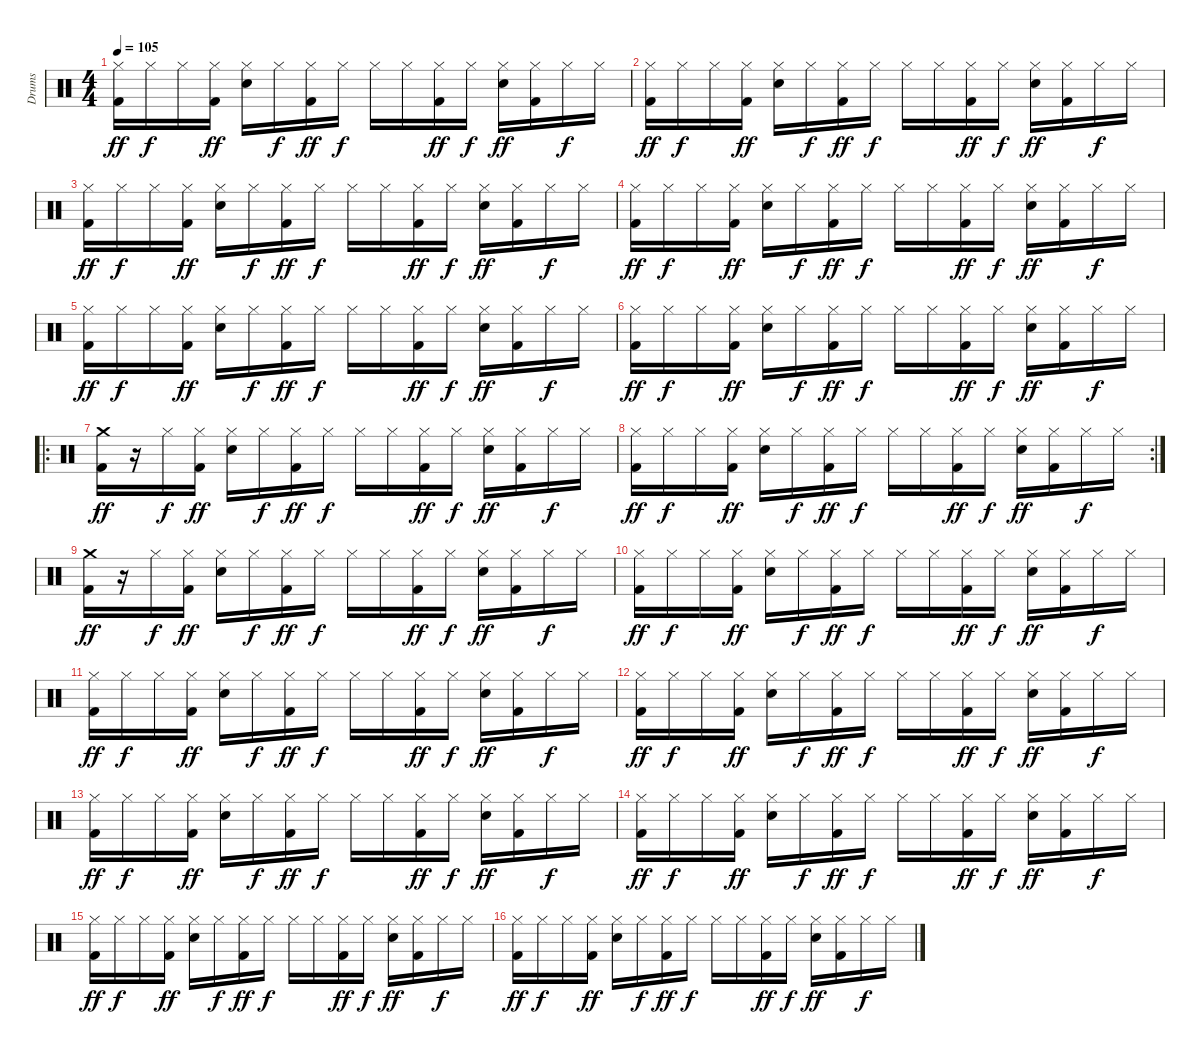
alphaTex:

\track ("Drums" "Drums") {instrument percussion}
\staff {score}
\articulation defaults
\ts (4 4)
\tempo 105
\clef neutral
\ks c
("Hi-Hat (closed)" "Kick (hit) 2").16{dy ff} "Hi-Hat (closed)".16{dy f} "Hi-Hat (closed)".16 ("Hi-Hat (closed)" "Kick (hit) 2").16{dy ff} ("Hi-Hat (closed)" "Electric Snare (hit)").16 "Hi-Hat (closed)".16{dy f} ("Hi-Hat (closed)" "Kick (hit) 2").16{dy ff} "Hi-Hat (closed)".16{dy f} "Hi-Hat (closed)".16 "Hi-Hat (closed)".16 ("Hi-Hat (closed)" "Kick (hit) 2").16{dy ff} "Hi-Hat (closed)".16{dy f} ("Hi-Hat (closed)" "Electric Snare (hit)").16{dy ff} ("Hi-Hat (closed)" "Kick (hit) 2").16 "Hi-Hat (closed)".16{dy f} "Hi-Hat (closed)".16 |
("Hi-Hat (closed)" "Kick (hit) 2").16{dy ff} "Hi-Hat (closed)".16{dy f} "Hi-Hat (closed)".16 ("Hi-Hat (closed)" "Kick (hit) 2").16{dy ff} ("Hi-Hat (closed)" "Electric Snare (hit)").16 "Hi-Hat (closed)".16{dy f} ("Hi-Hat (closed)" "Kick (hit) 2").16{dy ff} "Hi-Hat (closed)".16{dy f} "Hi-Hat (closed)".16 "Hi-Hat (closed)".16 ("Hi-Hat (closed)" "Kick (hit) 2").16{dy ff} "Hi-Hat (closed)".16{dy f} ("Hi-Hat (closed)" "Electric Snare (hit)").16{dy ff} ("Hi-Hat (closed)" "Kick (hit) 2").16 "Hi-Hat (closed)".16{dy f} "Hi-Hat (closed)".16 |
("Hi-Hat (closed)" "Kick (hit) 2").16{dy ff} "Hi-Hat (closed)".16{dy f} "Hi-Hat (closed)".16 ("Hi-Hat (closed)" "Kick (hit) 2").16{dy ff} ("Hi-Hat (closed)" "Electric Snare (hit)").16 "Hi-Hat (closed)".16{dy f} ("Hi-Hat (closed)" "Kick (hit) 2").16{dy ff} "Hi-Hat (closed)".16{dy f} "Hi-Hat (closed)".16 "Hi-Hat (closed)".16 ("Hi-Hat (closed)" "Kick (hit) 2").16{dy ff} "Hi-Hat (closed)".16{dy f} ("Hi-Hat (closed)" "Electric Snare (hit)").16{dy ff} ("Hi-Hat (closed)" "Kick (hit) 2").16 "Hi-Hat (closed)".16{dy f} "Hi-Hat (closed)".16 |
("Hi-Hat (closed)" "Kick (hit) 2").16{dy ff} "Hi-Hat (closed)".16{dy f} "Hi-Hat (closed)".16 ("Hi-Hat (closed)" "Kick (hit) 2").16{dy ff} ("Hi-Hat (closed)" "Electric Snare (hit)").16 "Hi-Hat (closed)".16{dy f} ("Hi-Hat (closed)" "Kick (hit) 2").16{dy ff} "Hi-Hat (closed)".16{dy f} "Hi-Hat (closed)".16 "Hi-Hat (closed)".16 ("Hi-Hat (closed)" "Kick (hit) 2").16{dy ff} "Hi-Hat (closed)".16{dy f} ("Hi-Hat (closed)" "Electric Snare (hit)").16{dy ff} ("Hi-Hat (closed)" "Kick (hit) 2").16 "Hi-Hat (closed)".16{dy f} "Hi-Hat (closed)".16 |
("Hi-Hat (closed)" "Kick (hit) 2").16{dy ff} "Hi-Hat (closed)".16{dy f} "Hi-Hat (closed)".16 ("Hi-Hat (closed)" "Kick (hit) 2").16{dy ff} ("Hi-Hat (closed)" "Electric Snare (hit)").16 "Hi-Hat (closed)".16{dy f} ("Hi-Hat (closed)" "Kick (hit) 2").16{dy ff} "Hi-Hat (closed)".16{dy f} "Hi-Hat (closed)".16 "Hi-Hat (closed)".16 ("Hi-Hat (closed)" "Kick (hit) 2").16{dy ff} "Hi-Hat (closed)".16{dy f} ("Hi-Hat (closed)" "Electric Snare (hit)").16{dy ff} ("Hi-Hat (closed)" "Kick (hit) 2").16 "Hi-Hat (closed)".16{dy f} "Hi-Hat (closed)".16 |
("Hi-Hat (closed)" "Kick (hit) 2").16{dy ff} "Hi-Hat (closed)".16{dy f} "Hi-Hat (closed)".16 ("Hi-Hat (closed)" "Kick (hit) 2").16{dy ff} ("Hi-Hat (closed)" "Electric Snare (hit)").16 "Hi-Hat (closed)".16{dy f} ("Hi-Hat (closed)" "Kick (hit) 2").16{dy ff} "Hi-Hat (closed)".16{dy f} "Hi-Hat (closed)".16 "Hi-Hat (closed)".16 ("Hi-Hat (closed)" "Kick (hit) 2").16{dy ff} "Hi-Hat (closed)".16{dy f} ("Hi-Hat (closed)" "Electric Snare (hit)").16{dy ff} ("Hi-Hat (closed)" "Kick (hit) 2").16 "Hi-Hat (closed)".16{dy f} "Hi-Hat (closed)".16 |
\ro
("Crash medium (hit)" "Kick (hit) 2").16{dy ff} r.16 "Hi-Hat (closed)".16{dy f} ("Hi-Hat (closed)" "Kick (hit) 2").16{dy ff} ("Hi-Hat (closed)" "Electric Snare (hit)").16 "Hi-Hat (closed)".16{dy f} ("Hi-Hat (closed)" "Kick (hit) 2").16{dy ff} "Hi-Hat (closed)".16{dy f} "Hi-Hat (closed)".16 "Hi-Hat (closed)".16 ("Hi-Hat (closed)" "Kick (hit) 2").16{dy ff} "Hi-Hat (closed)".16{dy f} ("Hi-Hat (closed)" "Electric Snare (hit)").16{dy ff} ("Hi-Hat (closed)" "Kick (hit) 2").16 "Hi-Hat (closed)".16{dy f} "Hi-Hat (closed)".16 |
\rc 2
("Hi-Hat (closed)" "Kick (hit) 2").16{dy ff} "Hi-Hat (closed)".16{dy f} "Hi-Hat (closed)".16 ("Hi-Hat (closed)" "Kick (hit) 2").16{dy ff} ("Hi-Hat (closed)" "Electric Snare (hit)").16 "Hi-Hat (closed)".16{dy f} ("Hi-Hat (closed)" "Kick (hit) 2").16{dy ff} "Hi-Hat (closed)".16{dy f} "Hi-Hat (closed)".16 "Hi-Hat (closed)".16 ("Hi-Hat (closed)" "Kick (hit) 2").16{dy ff} "Hi-Hat (closed)".16{dy f} ("Hi-Hat (closed)" "Electric Snare (hit)").16{dy ff} ("Hi-Hat (closed)" "Kick (hit) 2").16 "Hi-Hat (closed)".16{dy f} "Hi-Hat (closed)".16 |
("Crash medium (hit)" "Kick (hit) 2").16{dy ff} r.16 "Hi-Hat (closed)".16{dy f} ("Hi-Hat (closed)" "Kick (hit) 2").16{dy ff} ("Hi-Hat (closed)" "Electric Snare (hit)").16 "Hi-Hat (closed)".16{dy f} ("Hi-Hat (closed)" "Kick (hit) 2").16{dy ff} "Hi-Hat (closed)".16{dy f} "Hi-Hat (closed)".16 "Hi-Hat (closed)".16 ("Hi-Hat (closed)" "Kick (hit) 2").16{dy ff} "Hi-Hat (closed)".16{dy f} ("Hi-Hat (closed)" "Electric Snare (hit)").16{dy ff} ("Hi-Hat (closed)" "Kick (hit) 2").16 "Hi-Hat (closed)".16{dy f} "Hi-Hat (closed)".16 |
("Hi-Hat (closed)" "Kick (hit) 2").16{dy ff} "Hi-Hat (closed)".16{dy f} "Hi-Hat (closed)".16 ("Hi-Hat (closed)" "Kick (hit) 2").16{dy ff} ("Hi-Hat (closed)" "Electric Snare (hit)").16 "Hi-Hat (closed)".16{dy f} ("Hi-Hat (closed)" "Kick (hit) 2").16{dy ff} "Hi-Hat (closed)".16{dy f} "Hi-Hat (closed)".16 "Hi-Hat (closed)".16 ("Hi-Hat (closed)" "Kick (hit) 2").16{dy ff} "Hi-Hat (closed)".16{dy f} ("Hi-Hat (closed)" "Electric Snare (hit)").16{dy ff} ("Hi-Hat (closed)" "Kick (hit) 2").16 "Hi-Hat (closed)".16{dy f} "Hi-Hat (closed)".16 |
("Hi-Hat (closed)" "Kick (hit) 2").16{dy ff} "Hi-Hat (closed)".16{dy f} "Hi-Hat (closed)".16 ("Hi-Hat (closed)" "Kick (hit) 2").16{dy ff} ("Hi-Hat (closed)" "Electric Snare (hit)").16 "Hi-Hat (closed)".16{dy f} ("Hi-Hat (closed)" "Kick (hit) 2").16{dy ff} "Hi-Hat (closed)".16{dy f} "Hi-Hat (closed)".16 "Hi-Hat (closed)".16 ("Hi-Hat (closed)" "Kick (hit) 2").16{dy ff} "Hi-Hat (closed)".16{dy f} ("Hi-Hat (closed)" "Electric Snare (hit)").16{dy ff} ("Hi-Hat (closed)" "Kick (hit) 2").16 "Hi-Hat (closed)".16{dy f} "Hi-Hat (closed)".16 |
("Hi-Hat (closed)" "Kick (hit) 2").16{dy ff} "Hi-Hat (closed)".16{dy f} "Hi-Hat (closed)".16 ("Hi-Hat (closed)" "Kick (hit) 2").16{dy ff} ("Hi-Hat (closed)" "Electric Snare (hit)").16 "Hi-Hat (closed)".16{dy f} ("Hi-Hat (closed)" "Kick (hit) 2").16{dy ff} "Hi-Hat (closed)".16{dy f} "Hi-Hat (closed)".16 "Hi-Hat (closed)".16 ("Hi-Hat (closed)" "Kick (hit) 2").16{dy ff} "Hi-Hat (closed)".16{dy f} ("Hi-Hat (closed)" "Electric Snare (hit)").16{dy ff} ("Hi-Hat (closed)" "Kick (hit) 2").16 "Hi-Hat (closed)".16{dy f} "Hi-Hat (closed)".16 |
("Hi-Hat (closed)" "Kick (hit) 2").16{dy ff} "Hi-Hat (closed)".16{dy f} "Hi-Hat (closed)".16 ("Hi-Hat (closed)" "Kick (hit) 2").16{dy ff} ("Hi-Hat (closed)" "Electric Snare (hit)").16 "Hi-Hat (closed)".16{dy f} ("Hi-Hat (closed)" "Kick (hit) 2").16{dy ff} "Hi-Hat (closed)".16{dy f} "Hi-Hat (closed)".16 "Hi-Hat (closed)".16 ("Hi-Hat (closed)" "Kick (hit) 2").16{dy ff} "Hi-Hat (closed)".16{dy f} ("Hi-Hat (closed)" "Electric Snare (hit)").16{dy ff} ("Hi-Hat (closed)" "Kick (hit) 2").16 "Hi-Hat (closed)".16{dy f} "Hi-Hat (closed)".16 |
("Hi-Hat (closed)" "Kick (hit) 2").16{dy ff} "Hi-Hat (closed)".16{dy f} "Hi-Hat (closed)".16 ("Hi-Hat (closed)" "Kick (hit) 2").16{dy ff} ("Hi-Hat (closed)" "Electric Snare (hit)").16 "Hi-Hat (closed)".16{dy f} ("Hi-Hat (closed)" "Kick (hit) 2").16{dy ff} "Hi-Hat (closed)".16{dy f} "Hi-Hat (closed)".16 "Hi-Hat (closed)".16 ("Hi-Hat (closed)" "Kick (hit) 2").16{dy ff} "Hi-Hat (closed)".16{dy f} ("Hi-Hat (closed)" "Electric Snare (hit)").16{dy ff} ("Hi-Hat (closed)" "Kick (hit) 2").16 "Hi-Hat (closed)".16{dy f} "Hi-Hat (closed)".16 |
("Hi-Hat (closed)" "Kick (hit) 2").16{dy ff} "Hi-Hat (closed)".16{dy f} "Hi-Hat (closed)".16 ("Hi-Hat (closed)" "Kick (hit) 2").16{dy ff} ("Hi-Hat (closed)" "Electric Snare (hit)").16 "Hi-Hat (closed)".16{dy f} ("Hi-Hat (closed)" "Kick (hit) 2").16{dy ff} "Hi-Hat (closed)".16{dy f} "Hi-Hat (closed)".16 "Hi-Hat (closed)".16 ("Hi-Hat (closed)" "Kick (hit) 2").16{dy ff} "Hi-Hat (closed)".16{dy f} ("Hi-Hat (closed)" "Electric Snare (hit)").16{dy ff} ("Hi-Hat (closed)" "Kick (hit) 2").16 "Hi-Hat (closed)".16{dy f} "Hi-Hat (closed)".16 |
("Hi-Hat (closed)" "Kick (hit) 2").16{dy ff} "Hi-Hat (closed)".16{dy f} "Hi-Hat (closed)".16 ("Hi-Hat (closed)" "Kick (hit) 2").16{dy ff} ("Hi-Hat (closed)" "Electric Snare (hit)").16 "Hi-Hat (closed)".16{dy f} ("Hi-Hat (closed)" "Kick (hit) 2").16{dy ff} "Hi-Hat (closed)".16{dy f} "Hi-Hat (closed)".16 "Hi-Hat (closed)".16 ("Hi-Hat (closed)" "Kick (hit) 2").16{dy ff} "Hi-Hat (closed)".16{dy f} ("Hi-Hat (closed)" "Electric Snare (hit)").16{dy ff} ("Hi-Hat (closed)" "Kick (hit) 2").16 "Hi-Hat (closed)".16{dy f} "Hi-Hat (closed)".16
